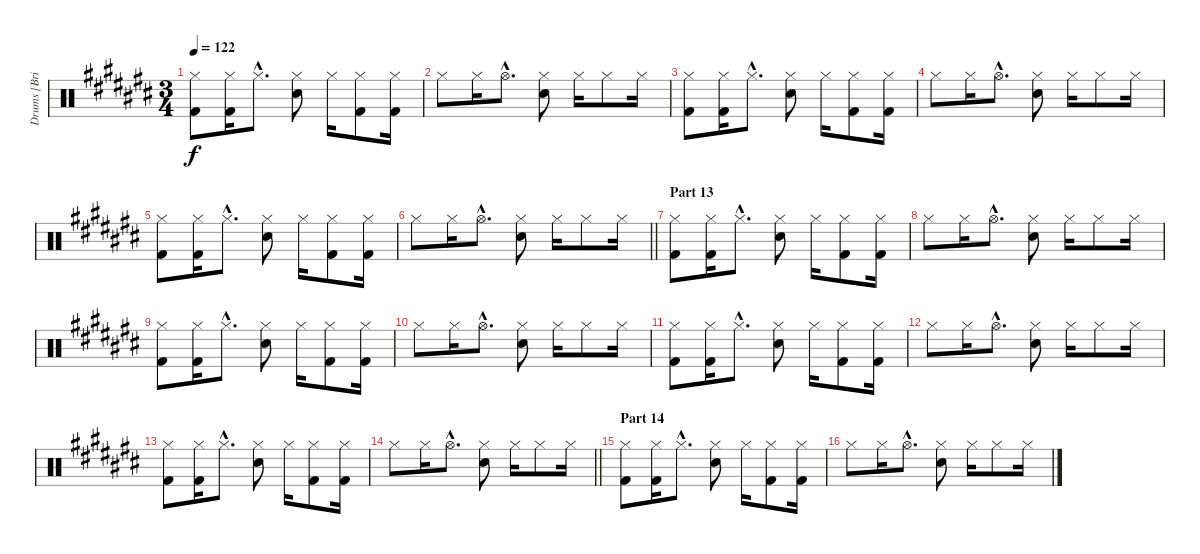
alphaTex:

\track ("Drums [Brian \"Brain\" Mantia]" "Drums [Bri") {instrument percussion}
\staff {score}
\articulation defaults
\ts (3 4)
\tempo 122
\clef neutral
\ks c#
("Hi-Hat (closed)" "Kick (hit) 2").8{dy f} ("Hi-Hat (closed)" "Kick (hit) 2").16 "Hi-Hat (closed)"{hac}.8{d} ("Hi-Hat (closed)" "Electric Snare (hit)").8 "Hi-Hat (closed)".16 ("Hi-Hat (closed)" "Kick (hit) 2").8 ("Hi-Hat (closed)" "Kick (hit) 2").16 |
"Hi-Hat (closed)".8 "Hi-Hat (closed)".16 "Hi-Hat (open)"{hac}.8{d} ("Hi-Hat (closed)" "Electric Snare (hit)").8 "Hi-Hat (closed)".16 "Hi-Hat (closed)".8 "Hi-Hat (closed)".16 |
("Hi-Hat (closed)" "Kick (hit) 2").8 ("Hi-Hat (closed)" "Kick (hit) 2").16 "Hi-Hat (closed)"{hac}.8{d} ("Hi-Hat (closed)" "Electric Snare (hit)").8 "Hi-Hat (closed)".16 ("Hi-Hat (closed)" "Kick (hit) 2").8 ("Hi-Hat (closed)" "Kick (hit) 2").16 |
"Hi-Hat (closed)".8 "Hi-Hat (closed)".16 "Hi-Hat (open)"{hac}.8{d} ("Hi-Hat (closed)" "Electric Snare (hit)").8 "Hi-Hat (closed)".16 "Hi-Hat (closed)".8 "Hi-Hat (closed)".16 |
("Hi-Hat (closed)" "Kick (hit) 2").8 ("Hi-Hat (closed)" "Kick (hit) 2").16 "Hi-Hat (closed)"{hac}.8{d} ("Hi-Hat (closed)" "Electric Snare (hit)").8 "Hi-Hat (closed)".16 ("Hi-Hat (closed)" "Kick (hit) 2").8 ("Hi-Hat (closed)" "Kick (hit) 2").16 |
\barLineRight lightlight "Hi-Hat (closed)".8 "Hi-Hat (closed)".16 "Hi-Hat (open)"{hac}.8{d}
("Hi-Hat (closed)" "Electric Snare (hit)").8 "Hi-Hat (closed)".16 "Hi-Hat (closed)".8 "Hi-Hat (closed)".16 |
\section ("" "Part 13")
("Hi-Hat (closed)" "Kick (hit) 2").8 ("Hi-Hat (closed)" "Kick (hit) 2").16 "Hi-Hat (closed)"{hac}.8{d} ("Hi-Hat (closed)" "Electric Snare (hit)").8 "Hi-Hat (closed)".16 ("Hi-Hat (closed)" "Kick (hit) 2").8 ("Hi-Hat (closed)" "Kick (hit) 2").16 |
"Hi-Hat (closed)".8 "Hi-Hat (closed)".16 "Hi-Hat (open)"{hac}.8{d} ("Hi-Hat (closed)" "Electric Snare (hit)").8 "Hi-Hat (closed)".16 "Hi-Hat (closed)".8 "Hi-Hat (closed)".16 |
("Hi-Hat (closed)" "Kick (hit) 2").8 ("Hi-Hat (closed)" "Kick (hit) 2").16 "Hi-Hat (closed)"{hac}.8{d} ("Hi-Hat (closed)" "Electric Snare (hit)").8 "Hi-Hat (closed)".16 ("Hi-Hat (closed)" "Kick (hit) 2").8 ("Hi-Hat (closed)" "Kick (hit) 2").16 |
"Hi-Hat (closed)".8 "Hi-Hat (closed)".16 "Hi-Hat (open)"{hac}.8{d} ("Hi-Hat (closed)" "Electric Snare (hit)").8 "Hi-Hat (closed)".16 "Hi-Hat (closed)".8 "Hi-Hat (closed)".16 |
("Hi-Hat (closed)" "Kick (hit) 2").8 ("Hi-Hat (closed)" "Kick (hit) 2").16 "Hi-Hat (closed)"{hac}.8{d} ("Hi-Hat (closed)" "Electric Snare (hit)").8 "Hi-Hat (closed)".16 ("Hi-Hat (closed)" "Kick (hit) 2").8 ("Hi-Hat (closed)" "Kick (hit) 2").16 |
"Hi-Hat (closed)".8 "Hi-Hat (closed)".16 "Hi-Hat (open)"{hac}.8{d} ("Hi-Hat (closed)" "Electric Snare (hit)").8 "Hi-Hat (closed)".16 "Hi-Hat (closed)".8 "Hi-Hat (closed)".16 |
("Hi-Hat (closed)" "Kick (hit) 2").8 ("Hi-Hat (closed)" "Kick (hit) 2").16 "Hi-Hat (closed)"{hac}.8{d} ("Hi-Hat (closed)" "Electric Snare (hit)").8 "Hi-Hat (closed)".16 ("Hi-Hat (closed)" "Kick (hit) 2").8 ("Hi-Hat (closed)" "Kick (hit) 2").16 |
\barLineRight lightlight "Hi-Hat (closed)".8 "Hi-Hat (closed)".16 "Hi-Hat (open)"{hac}.8{d}
("Hi-Hat (closed)" "Electric Snare (hit)").8 "Hi-Hat (closed)".16 "Hi-Hat (closed)".8 "Hi-Hat (closed)".16 |
\section ("" "Part 14")
("Hi-Hat (closed)" "Kick (hit) 2").8 ("Hi-Hat (closed)" "Kick (hit) 2").16 "Hi-Hat (closed)"{hac}.8{d} ("Hi-Hat (closed)" "Electric Snare (hit)").8 "Hi-Hat (closed)".16 ("Hi-Hat (closed)" "Kick (hit) 2").8 ("Hi-Hat (closed)" "Kick (hit) 2").16 |
"Hi-Hat (closed)".8 "Hi-Hat (closed)".16 "Hi-Hat (open)"{hac}.8{d} ("Hi-Hat (closed)" "Electric Snare (hit)").8 "Hi-Hat (closed)".16 "Hi-Hat (closed)".8 "Hi-Hat (closed)".16
